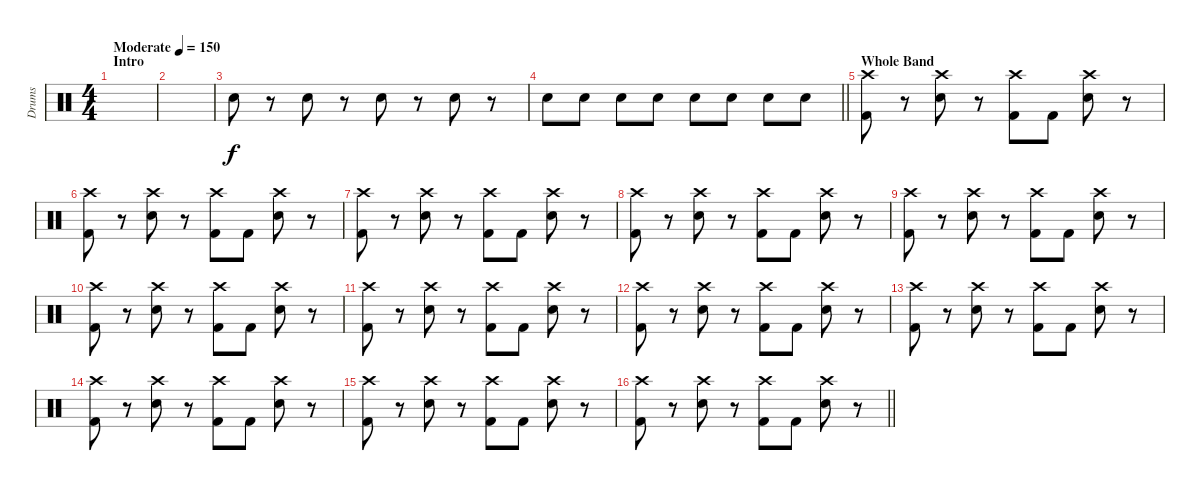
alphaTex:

\track ("Drums" "Drums") {instrument percussion}
\staff {score}
\articulation defaults
\ts (4 4)
\section ("" "Intro")
\tempo (150 "Moderate")
\clef neutral
\ks c
|
|
"Snare (hit) 2".8 r.8 "Snare (hit) 2".8 r.8 "Snare (hit) 2".8 r.8 "Snare (hit) 2".8 r.8 |
\barLineRight lightlight "Snare (hit) 2".8 "Snare (hit) 2".8 "Snare (hit) 2".8 "Snare (hit) 2".8 "Snare (hit) 2".8 "Snare (hit) 2".8 "Snare (hit) 2".8 "Snare (hit) 2".8
|
\section ("" "Whole Band")
("Crash high (hit)" "Kick (hit) 2").8 r.8 ("Crash high (hit)" "Snare (hit) 2").8 r.8 ("Crash high (hit)" "Kick (hit) 2").8 "Kick (hit) 2".8 ("Crash high (hit)" "Snare (hit) 2").8 r.8 |
("Crash high (hit)" "Kick (hit) 2").8 r.8 ("Crash high (hit)" "Snare (hit) 2").8 r.8 ("Crash high (hit)" "Kick (hit) 2").8 "Kick (hit) 2".8 ("Crash high (hit)" "Snare (hit) 2").8 r.8 |
("Crash high (hit)" "Kick (hit) 2").8 r.8 ("Crash high (hit)" "Snare (hit) 2").8 r.8 ("Crash high (hit)" "Kick (hit) 2").8 "Kick (hit) 2".8 ("Crash high (hit)" "Snare (hit) 2").8 r.8 |
("Crash high (hit)" "Kick (hit) 2").8 r.8 ("Crash high (hit)" "Snare (hit) 2").8 r.8 ("Crash high (hit)" "Kick (hit) 2").8 "Kick (hit) 2".8 ("Crash high (hit)" "Snare (hit) 2").8 r.8 |
("Crash high (hit)" "Kick (hit) 2").8 r.8 ("Crash high (hit)" "Snare (hit) 2").8 r.8 ("Crash high (hit)" "Kick (hit) 2").8 "Kick (hit) 2".8 ("Crash high (hit)" "Snare (hit) 2").8 r.8 |
("Crash high (hit)" "Kick (hit) 2").8 r.8 ("Crash high (hit)" "Snare (hit) 2").8 r.8 ("Crash high (hit)" "Kick (hit) 2").8 "Kick (hit) 2".8 ("Crash high (hit)" "Snare (hit) 2").8 r.8 |
("Crash high (hit)" "Kick (hit) 2").8 r.8 ("Crash high (hit)" "Snare (hit) 2").8 r.8 ("Crash high (hit)" "Kick (hit) 2").8 "Kick (hit) 2".8 ("Crash high (hit)" "Snare (hit) 2").8 r.8 |
("Crash high (hit)" "Kick (hit) 2").8 r.8 ("Crash high (hit)" "Snare (hit) 2").8 r.8 ("Crash high (hit)" "Kick (hit) 2").8 "Kick (hit) 2".8 ("Crash high (hit)" "Snare (hit) 2").8 r.8 |
("Crash high (hit)" "Kick (hit) 2").8 r.8 ("Crash high (hit)" "Snare (hit) 2").8 r.8 ("Crash high (hit)" "Kick (hit) 2").8 "Kick (hit) 2".8 ("Crash high (hit)" "Snare (hit) 2").8 r.8 |
("Crash high (hit)" "Kick (hit) 2").8 r.8 ("Crash high (hit)" "Snare (hit) 2").8 r.8 ("Crash high (hit)" "Kick (hit) 2").8 "Kick (hit) 2".8 ("Crash high (hit)" "Snare (hit) 2").8 r.8 |
("Crash high (hit)" "Kick (hit) 2").8 r.8 ("Crash high (hit)" "Snare (hit) 2").8 r.8 ("Crash high (hit)" "Kick (hit) 2").8 "Kick (hit) 2".8 ("Crash high (hit)" "Snare (hit) 2").8 r.8 |
\barLineRight lightlight
("Crash high (hit)" "Kick (hit) 2").8 r.8 ("Crash high (hit)" "Snare (hit) 2").8 r.8 ("Crash high (hit)" "Kick (hit) 2").8 "Kick (hit) 2".8 ("Crash high (hit)" "Snare (hit) 2").8 r.8
